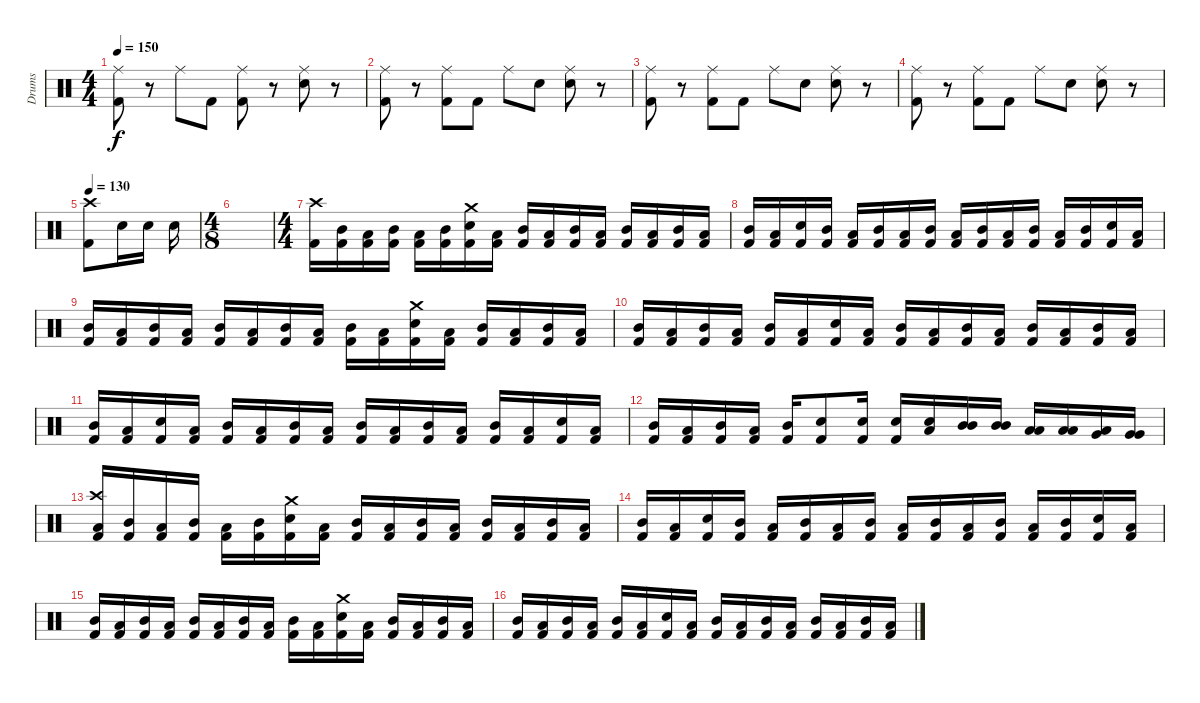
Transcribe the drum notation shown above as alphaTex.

\track ("Drums" "Drums") {instrument percussion}
\staff {score}
\articulation defaults
\ts (4 4)
\tempo 150
\clef neutral
\ks c
("Ride (middle)" "Kick (hit) 2").8{dy f} r.8 "Ride (middle)".8 "Kick (hit) 2".8 ("Ride (middle)" "Kick (hit) 2").8 r.8 ("Ride (middle)" "Electric Snare (hit)").8 r.8 |
("Ride (middle)" "Kick (hit) 2").8 r.8 ("Ride (middle)" "Kick (hit) 2").8 "Kick (hit) 2".8 "Ride (middle)".8 "Snare (hit)".8 ("Ride (middle)" "Electric Snare (hit)").8 r.8 |
("Ride (middle)" "Kick (hit) 2").8 r.8 ("Ride (middle)" "Kick (hit) 2").8 "Kick (hit) 2".8 "Ride (middle)".8 "Snare (hit)".8 ("Ride (middle)" "Electric Snare (hit)").8 r.8 |
("Ride (middle)" "Kick (hit) 2").8 r.8 ("Ride (middle)" "Kick (hit) 2").8 "Kick (hit) 2".8 "Ride (middle)".8 "Snare (hit)".8 ("Ride (middle)" "Electric Snare (hit)").8 r.8 |
\tempo 130
("Crash high (hit)" "Kick (hit) 2").8 "Snare (hit) 2".16 "Snare (hit) 2".16 "Snare (hit) 2".16 |
\ts (4 8)
|
\ts (4 4)
("Crash high (hit)" "Kick (hit) 2").16 ("Kick (hit) 2" "Mid Tom (hit)").16 ("Kick (hit) 2" "Low Tom (hit)").16 ("Kick (hit) 2" "Mid Tom (hit)").16 ("Kick (hit) 2" "Low Tom (hit)").16 ("Kick (hit) 2" "Mid Tom (hit)").16 ("Kick (hit) 2" "Snare (hit) 2" "Crash medium (hit)").16 ("Kick (hit) 2" "Low Tom (hit)").16 ("Kick (hit) 2" "Mid Tom (hit)").16 ("Kick (hit) 2" "Low Tom (hit)").16 ("Kick (hit) 2" "Mid Tom (hit)").16 ("Kick (hit) 2" "Low Tom (hit)").16 ("Kick (hit) 2" "Mid Tom (hit)").16 ("Kick (hit) 2" "Low Tom (hit)").16 ("Kick (hit) 2" "Mid Tom (hit)").16 ("Kick (hit) 2" "Low Tom (hit)").16 |
("Kick (hit) 2" "Mid Tom (hit)").16 ("Kick (hit) 2" "Low Tom (hit)").16 ("Kick (hit) 2" "Snare (hit) 2").16 ("Kick (hit) 2" "Mid Tom (hit)").16 ("Kick (hit) 2" "Low Tom (hit)").16 ("Kick (hit) 2" "Mid Tom (hit)").16 ("Kick (hit) 2" "Low Tom (hit)").16 ("Kick (hit) 2" "Mid Tom (hit)").16 ("Kick (hit) 2" "Low Tom (hit)").16 ("Kick (hit) 2" "Mid Tom (hit)").16 ("Kick (hit) 2" "Low Tom (hit)").16 ("Kick (hit) 2" "Mid Tom (hit)").16 ("Kick (hit) 2" "Low Tom (hit)").16 ("Kick (hit) 2" "Mid Tom (hit)").16 ("Kick (hit) 2" "Snare (hit) 2").16 ("Kick (hit) 2" "Low Tom (hit)").16 |
("Kick (hit) 2" "Mid Tom (hit)").16 ("Kick (hit) 2" "Low Tom (hit)").16 ("Kick (hit) 2" "Mid Tom (hit)").16 ("Kick (hit) 2" "Low Tom (hit)").16 ("Kick (hit) 2" "Mid Tom (hit)").16 ("Kick (hit) 2" "Low Tom (hit)").16 ("Kick (hit) 2" "Mid Tom (hit)").16 ("Kick (hit) 2" "Low Tom (hit)").16 ("Kick (hit) 2" "Mid Tom (hit)").16 ("Kick (hit) 2" "Low Tom (hit)").16 ("Kick (hit) 2" "Snare (hit) 2" "Crash medium (hit)").16 ("Kick (hit) 2" "Low Tom (hit)").16 ("Kick (hit) 2" "Mid Tom (hit)").16 ("Kick (hit) 2" "Low Tom (hit)").16 ("Kick (hit) 2" "Mid Tom (hit)").16 ("Kick (hit) 2" "Low Tom (hit)").16 |
("Kick (hit) 2" "Mid Tom (hit)").16 ("Kick (hit) 2" "Low Tom (hit)").16 ("Kick (hit) 2" "Mid Tom (hit)").16 ("Kick (hit) 2" "Low Tom (hit)").16 ("Kick (hit) 2" "Mid Tom (hit)").16 ("Kick (hit) 2" "Low Tom (hit)").16 ("Kick (hit) 2" "Snare (hit) 2").16 ("Kick (hit) 2" "Low Tom (hit)").16 ("Kick (hit) 2" "Mid Tom (hit)").16 ("Kick (hit) 2" "Low Tom (hit)").16 ("Kick (hit) 2" "Mid Tom (hit)").16 ("Kick (hit) 2" "Low Tom (hit)").16 ("Kick (hit) 2" "Mid Tom (hit)").16 ("Kick (hit) 2" "Low Tom (hit)").16 ("Kick (hit) 2" "Mid Tom (hit)").16 ("Kick (hit) 2" "Low Tom (hit)").16 |
("Kick (hit) 2" "Mid Tom (hit)").16 ("Kick (hit) 2" "Low Tom (hit)").16 ("Kick (hit) 2" "Snare (hit) 2").16 ("Kick (hit) 2" "Low Tom (hit)").16 ("Kick (hit) 2" "Mid Tom (hit)").16 ("Kick (hit) 2" "Low Tom (hit)").16 ("Kick (hit) 2" "Mid Tom (hit)").16 ("Kick (hit) 2" "Low Tom (hit)").16 ("Kick (hit) 2" "Mid Tom (hit)").16 ("Kick (hit) 2" "Low Tom (hit)").16 ("Kick (hit) 2" "Mid Tom (hit)").16 ("Kick (hit) 2" "Low Tom (hit)").16 ("Kick (hit) 2" "Mid Tom (hit)").16 ("Kick (hit) 2" "Low Tom (hit)").16 ("Kick (hit) 2" "Snare (hit) 2").16 ("Kick (hit) 2" "Low Tom (hit)").16 |
("Kick (hit) 2" "Mid Tom (hit)").16 ("Kick (hit) 2" "Low Tom (hit)").16 ("Kick (hit) 2" "Mid Tom (hit)").16 ("Kick (hit) 2" "Low Tom (hit)").16 ("Kick (hit) 2" "Mid Tom (hit)").16 ("Kick (hit) 2" "Snare (hit) 2").8 ("Kick (hit) 2" "Snare (hit) 2").16 ("Kick (hit) 2" "Snare (hit) 2").16 ("Low Tom (hit)" "Snare (hit) 2").16 ("Mid Tom (hit)" "Mid Tom (hit)").16 ("Mid Tom (hit)" "Mid Tom (hit)").16 ("Low Tom (hit)" "Low Tom (hit)").16 ("Low Tom (hit)" "Low Tom (hit)").16 ("Very Low Tom (hit)" "Low Tom (hit)").16 ("Very Low Tom (hit)" "Very Low Tom (hit)").16 |
("Kick (hit) 2" "Low Tom (hit)" "Crash high (hit)").16 ("Kick (hit) 2" "Mid Tom (hit)").16 ("Kick (hit) 2" "Low Tom (hit)").16 ("Kick (hit) 2" "Mid Tom (hit)").16 ("Kick (hit) 2" "Low Tom (hit)").16 ("Kick (hit) 2" "Mid Tom (hit)").16 ("Kick (hit) 2" "Snare (hit) 2" "Crash medium (hit)").16 ("Kick (hit) 2" "Low Tom (hit)").16 ("Kick (hit) 2" "Mid Tom (hit)").16 ("Kick (hit) 2" "Low Tom (hit)").16 ("Kick (hit) 2" "Mid Tom (hit)").16 ("Kick (hit) 2" "Low Tom (hit)").16 ("Kick (hit) 2" "Mid Tom (hit)").16 ("Kick (hit) 2" "Low Tom (hit)").16 ("Kick (hit) 2" "Mid Tom (hit)").16 ("Kick (hit) 2" "Low Tom (hit)").16 |
("Kick (hit) 2" "Mid Tom (hit)").16 ("Kick (hit) 2" "Low Tom (hit)").16 ("Kick (hit) 2" "Snare (hit) 2").16 ("Kick (hit) 2" "Mid Tom (hit)").16 ("Kick (hit) 2" "Low Tom (hit)").16 ("Kick (hit) 2" "Mid Tom (hit)").16 ("Kick (hit) 2" "Low Tom (hit)").16 ("Kick (hit) 2" "Mid Tom (hit)").16 ("Kick (hit) 2" "Low Tom (hit)").16 ("Kick (hit) 2" "Mid Tom (hit)").16 ("Kick (hit) 2" "Low Tom (hit)").16 ("Kick (hit) 2" "Mid Tom (hit)").16 ("Kick (hit) 2" "Low Tom (hit)").16 ("Kick (hit) 2" "Mid Tom (hit)").16 ("Kick (hit) 2" "Snare (hit) 2").16 ("Kick (hit) 2" "Low Tom (hit)").16 |
("Kick (hit) 2" "Mid Tom (hit)").16 ("Kick (hit) 2" "Low Tom (hit)").16 ("Kick (hit) 2" "Mid Tom (hit)").16 ("Kick (hit) 2" "Low Tom (hit)").16 ("Kick (hit) 2" "Mid Tom (hit)").16 ("Kick (hit) 2" "Low Tom (hit)").16 ("Kick (hit) 2" "Mid Tom (hit)").16 ("Kick (hit) 2" "Low Tom (hit)").16 ("Kick (hit) 2" "Mid Tom (hit)").16 ("Kick (hit) 2" "Low Tom (hit)").16 ("Kick (hit) 2" "Snare (hit) 2" "Crash medium (hit)").16 ("Kick (hit) 2" "Low Tom (hit)").16 ("Kick (hit) 2" "Mid Tom (hit)").16 ("Kick (hit) 2" "Low Tom (hit)").16 ("Kick (hit) 2" "Mid Tom (hit)").16 ("Kick (hit) 2" "Low Tom (hit)").16 |
("Kick (hit) 2" "Mid Tom (hit)").16 ("Kick (hit) 2" "Low Tom (hit)").16 ("Kick (hit) 2" "Mid Tom (hit)").16 ("Kick (hit) 2" "Low Tom (hit)").16 ("Kick (hit) 2" "Mid Tom (hit)").16 ("Kick (hit) 2" "Low Tom (hit)").16 ("Kick (hit) 2" "Snare (hit) 2").16 ("Kick (hit) 2" "Low Tom (hit)").16 ("Kick (hit) 2" "Mid Tom (hit)").16 ("Kick (hit) 2" "Low Tom (hit)").16 ("Kick (hit) 2" "Mid Tom (hit)").16 ("Kick (hit) 2" "Low Tom (hit)").16 ("Kick (hit) 2" "Mid Tom (hit)").16 ("Kick (hit) 2" "Low Tom (hit)").16 ("Kick (hit) 2" "Mid Tom (hit)").16 ("Kick (hit) 2" "Low Tom (hit)").16
